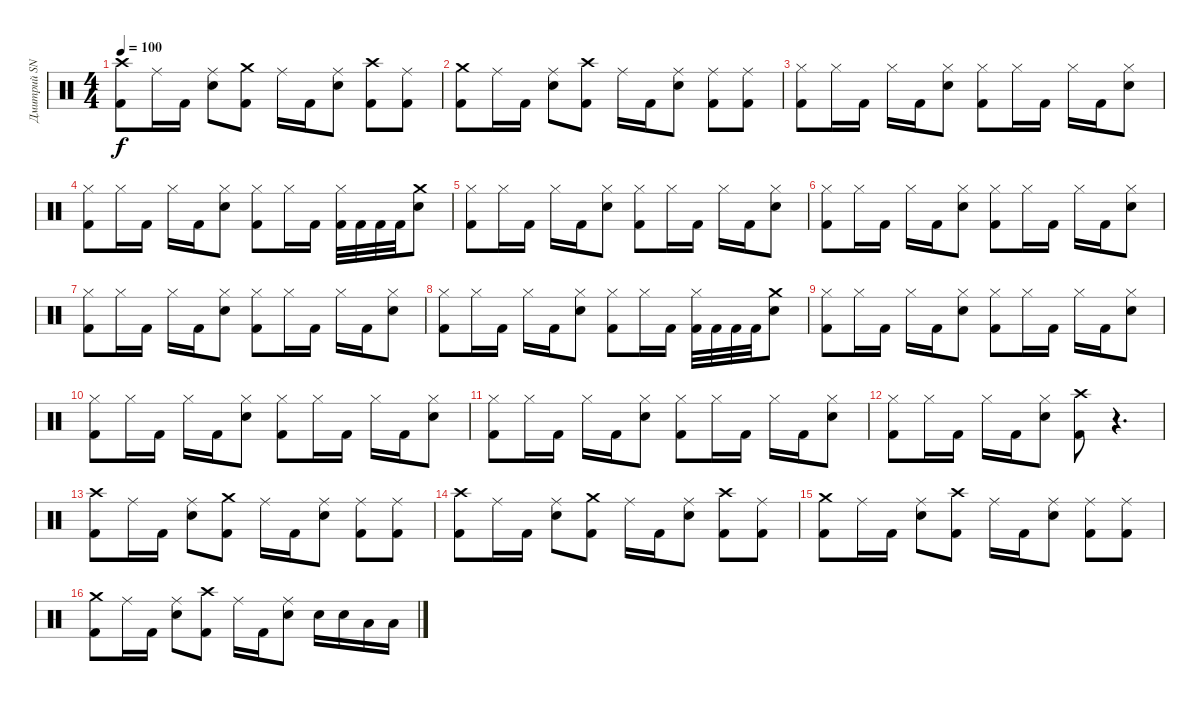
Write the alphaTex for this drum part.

\track ("Дмитрий SNAKE Хакимов" "Дмитрий SN") {instrument percussion}
\staff {score}
\articulation defaults
\ts (4 4)
\tempo 100
\clef neutral
\ks c
("Crash high (hit)" "Kick (hit) 2").8{dy f} "Ride (middle)".16 "Kick (hit) 2".16 ("Ride (middle)" "Snare (hit) 2").8 ("Crash medium (hit)" "Kick (hit) 2").8 "Ride (middle)".16 "Kick (hit) 2".16 ("Ride (middle)" "Snare (hit) 2").8 ("Crash high (hit)" "Kick (hit) 2").8 ("Ride (middle)" "Kick (hit) 2").8 |
("Crash medium (hit)" "Kick (hit) 2").8 "Ride (middle)".16 "Kick (hit) 2".16 ("Ride (middle)" "Snare (hit) 2").8 ("Crash high (hit)" "Kick (hit) 2").8 "Ride (middle)".16 "Kick (hit) 2".16 ("Ride (middle)" "Snare (hit) 2").8 ("Ride (middle)" "Kick (hit) 2").8 ("Ride (middle)" "Kick (hit) 2").8 |
("Hi-Hat (closed)" "Kick (hit) 2").8 "Hi-Hat (closed)".16 "Kick (hit) 2".16 "Hi-Hat (closed)".16 "Kick (hit) 2".16 ("Hi-Hat (closed)" "Snare (hit) 2").8 ("Hi-Hat (closed)" "Kick (hit) 2").8 "Hi-Hat (closed)".16 "Kick (hit) 2".16 "Hi-Hat (closed)".16 "Kick (hit) 2".16 ("Hi-Hat (closed)" "Snare (hit) 2").8 |
("Hi-Hat (closed)" "Kick (hit) 2").8 "Hi-Hat (closed)".16 "Kick (hit) 2".16 "Hi-Hat (closed)".16 "Kick (hit) 2".16 ("Hi-Hat (closed)" "Snare (hit) 2").8 ("Hi-Hat (closed)" "Kick (hit) 2").8 "Hi-Hat (closed)".16 "Kick (hit) 2".16 ("Hi-Hat (closed)" "Kick (hit) 2").32 "Kick (hit) 2".32 "Kick (hit) 2".32 "Kick (hit) 2".32 ("Crash medium (hit)" "Snare (hit) 2").8 |
("Hi-Hat (closed)" "Kick (hit) 2").8 "Hi-Hat (closed)".16 "Kick (hit) 2".16 "Hi-Hat (closed)".16 "Kick (hit) 2".16 ("Hi-Hat (closed)" "Snare (hit) 2").8 ("Hi-Hat (closed)" "Kick (hit) 2").8 "Hi-Hat (closed)".16 "Kick (hit) 2".16 "Hi-Hat (closed)".16 "Kick (hit) 2".16 ("Hi-Hat (closed)" "Snare (hit) 2").8 |
("Hi-Hat (closed)" "Kick (hit) 2").8 "Hi-Hat (closed)".16 "Kick (hit) 2".16 "Hi-Hat (closed)".16 "Kick (hit) 2".16 ("Hi-Hat (closed)" "Snare (hit) 2").8 ("Hi-Hat (closed)" "Kick (hit) 2").8 "Hi-Hat (closed)".16 "Kick (hit) 2".16 "Hi-Hat (closed)".16 "Kick (hit) 2".16 ("Hi-Hat (closed)" "Snare (hit) 2").8 |
("Hi-Hat (closed)" "Kick (hit) 2").8 "Hi-Hat (closed)".16 "Kick (hit) 2".16 "Hi-Hat (closed)".16 "Kick (hit) 2".16 ("Hi-Hat (closed)" "Snare (hit) 2").8 ("Hi-Hat (closed)" "Kick (hit) 2").8 "Hi-Hat (closed)".16 "Kick (hit) 2".16 "Hi-Hat (closed)".16 "Kick (hit) 2".16 ("Hi-Hat (closed)" "Snare (hit) 2").8 |
("Hi-Hat (closed)" "Kick (hit) 2").8 "Hi-Hat (closed)".16 "Kick (hit) 2".16 "Hi-Hat (closed)".16 "Kick (hit) 2".16 ("Hi-Hat (closed)" "Snare (hit) 2").8 ("Hi-Hat (closed)" "Kick (hit) 2").8 "Hi-Hat (closed)".16 "Kick (hit) 2".16 ("Hi-Hat (closed)" "Kick (hit) 2").32 "Kick (hit) 2".32 "Kick (hit) 2".32 "Kick (hit) 2".32 ("Crash medium (hit)" "Snare (hit) 2").8 |
("Hi-Hat (closed)" "Kick (hit) 2").8 "Hi-Hat (closed)".16 "Kick (hit) 2".16 "Hi-Hat (closed)".16 "Kick (hit) 2".16 ("Hi-Hat (closed)" "Snare (hit) 2").8 ("Hi-Hat (closed)" "Kick (hit) 2").8 "Hi-Hat (closed)".16 "Kick (hit) 2".16 "Hi-Hat (closed)".16 "Kick (hit) 2".16 ("Hi-Hat (closed)" "Snare (hit) 2").8 |
("Hi-Hat (closed)" "Kick (hit) 2").8 "Hi-Hat (closed)".16 "Kick (hit) 2".16 "Hi-Hat (closed)".16 "Kick (hit) 2".16 ("Hi-Hat (closed)" "Snare (hit) 2").8 ("Hi-Hat (closed)" "Kick (hit) 2").8 "Hi-Hat (closed)".16 "Kick (hit) 2".16 "Hi-Hat (closed)".16 "Kick (hit) 2".16 ("Hi-Hat (closed)" "Snare (hit) 2").8 |
("Hi-Hat (closed)" "Kick (hit) 2").8 "Hi-Hat (closed)".16 "Kick (hit) 2".16 "Hi-Hat (closed)".16 "Kick (hit) 2".16 ("Hi-Hat (closed)" "Snare (hit) 2").8 ("Hi-Hat (closed)" "Kick (hit) 2").8 "Hi-Hat (closed)".16 "Kick (hit) 2".16 "Hi-Hat (closed)".16 "Kick (hit) 2".16 ("Hi-Hat (closed)" "Snare (hit) 2").8 |
("Hi-Hat (closed)" "Kick (hit) 2").8 "Hi-Hat (closed)".16 "Kick (hit) 2".16 "Hi-Hat (closed)".16 "Kick (hit) 2".16 ("Hi-Hat (closed)" "Snare (hit) 2").8 ("Crash high (hit)" "Kick (hit) 2").8 r.4{d} |
("Crash high (hit)" "Kick (hit) 2").8 "Ride (middle)".16 "Kick (hit) 2".16 ("Ride (middle)" "Snare (hit) 2").8 ("Crash medium (hit)" "Kick (hit) 2").8 "Ride (middle)".16 "Kick (hit) 2".16 ("Ride (middle)" "Snare (hit) 2").8 ("Ride (middle)" "Kick (hit) 2").8 ("Ride (middle)" "Kick (hit) 2").8 |
("Crash high (hit)" "Kick (hit) 2").8 "Ride (middle)".16 "Kick (hit) 2".16 ("Ride (middle)" "Snare (hit) 2").8 ("Crash medium (hit)" "Kick (hit) 2").8 "Ride (middle)".16 "Kick (hit) 2".16 ("Ride (middle)" "Snare (hit) 2").8 ("Crash high (hit)" "Kick (hit) 2").8 ("Ride (middle)" "Kick (hit) 2").8 |
("Crash medium (hit)" "Kick (hit) 2").8 "Ride (middle)".16 "Kick (hit) 2".16 ("Ride (middle)" "Snare (hit) 2").8 ("Crash high (hit)" "Kick (hit) 2").8 "Ride (middle)".16 "Kick (hit) 2".16 ("Ride (middle)" "Snare (hit) 2").8 ("Ride (middle)" "Kick (hit) 2").8 ("Ride (middle)" "Kick (hit) 2").8 |
("Crash medium (hit)" "Kick (hit) 2").8 "Ride (middle)".16 "Kick (hit) 2".16 ("Ride (middle)" "Snare (hit) 2").8 ("Crash high (hit)" "Kick (hit) 2").8 "Ride (middle)".16 "Kick (hit) 2".16 ("Ride (middle)" "Snare (hit) 2").8 "Snare (hit) 2".16 "Snare (hit) 2".16 "Low Tom (hit)".16 "Low Tom (hit)".16
